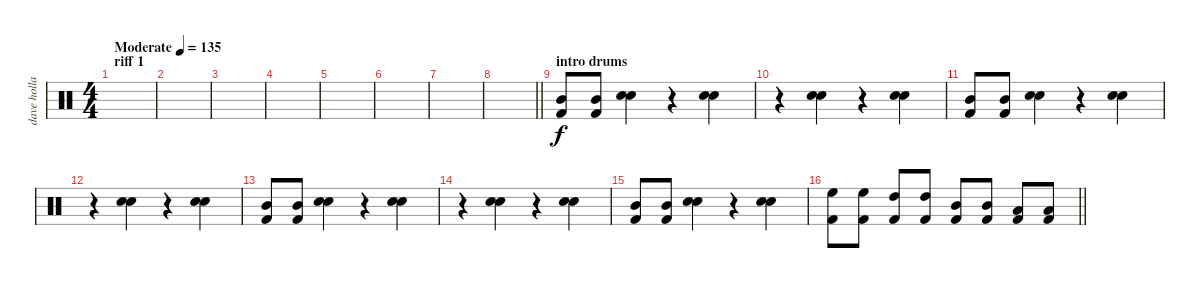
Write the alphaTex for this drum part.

\track ("dave holland" "dave holla") {instrument percussion}
\staff {score}
\articulation defaults
\ts (4 4)
\section ("" "riff 1")
\tempo (135 "Moderate")
\clef neutral
\ks c
|
|
|
|
|
|
|
\barLineRight lightlight
|
\section ("" "intro drums")
("Kick (hit) 2" "Mid Tom (hit)").8 ("Kick (hit) 2" "Mid Tom (hit)").8 ("Snare (hit) 2" "Electric Snare (hit)").4 r.4 ("Snare (hit) 2" "Electric Snare (hit)").4 |
r.4 ("Snare (hit) 2" "Electric Snare (hit)").4 r.4 ("Snare (hit) 2" "Electric Snare (hit)").4 |
("Kick (hit) 2" "Mid Tom (hit)").8 ("Kick (hit) 2" "Mid Tom (hit)").8 ("Snare (hit) 2" "Electric Snare (hit)").4 r.4 ("Snare (hit) 2" "Electric Snare (hit)").4 |
r.4 ("Snare (hit) 2" "Electric Snare (hit)").4 r.4 ("Snare (hit) 2" "Electric Snare (hit)").4 |
("Kick (hit) 2" "Mid Tom (hit)").8 ("Kick (hit) 2" "Mid Tom (hit)").8 ("Snare (hit) 2" "Electric Snare (hit)").4 r.4 ("Snare (hit) 2" "Electric Snare (hit)").4 |
r.4 ("Snare (hit) 2" "Electric Snare (hit)").4 r.4 ("Snare (hit) 2" "Electric Snare (hit)").4 |
("Kick (hit) 2" "Mid Tom (hit)").8 ("Kick (hit) 2" "Mid Tom (hit)").8 ("Snare (hit) 2" "Electric Snare (hit)").4 r.4 ("Snare (hit) 2" "Electric Snare (hit)").4 |
\barLineRight lightlight
("High Floor Tom (hit)" "Kick (hit) 2").8 ("High Floor Tom (hit)" "Kick (hit) 2").8 ("High Tom (hit)" "Kick (hit) 2").8 ("High Tom (hit)" "Kick (hit) 2").8 ("Mid Tom (hit)" "Kick (hit) 2").8 ("Mid Tom (hit)" "Kick (hit) 2").8 ("Low Tom (hit)" "Kick (hit) 2").8 ("Low Tom (hit)" "Kick (hit) 2").8
